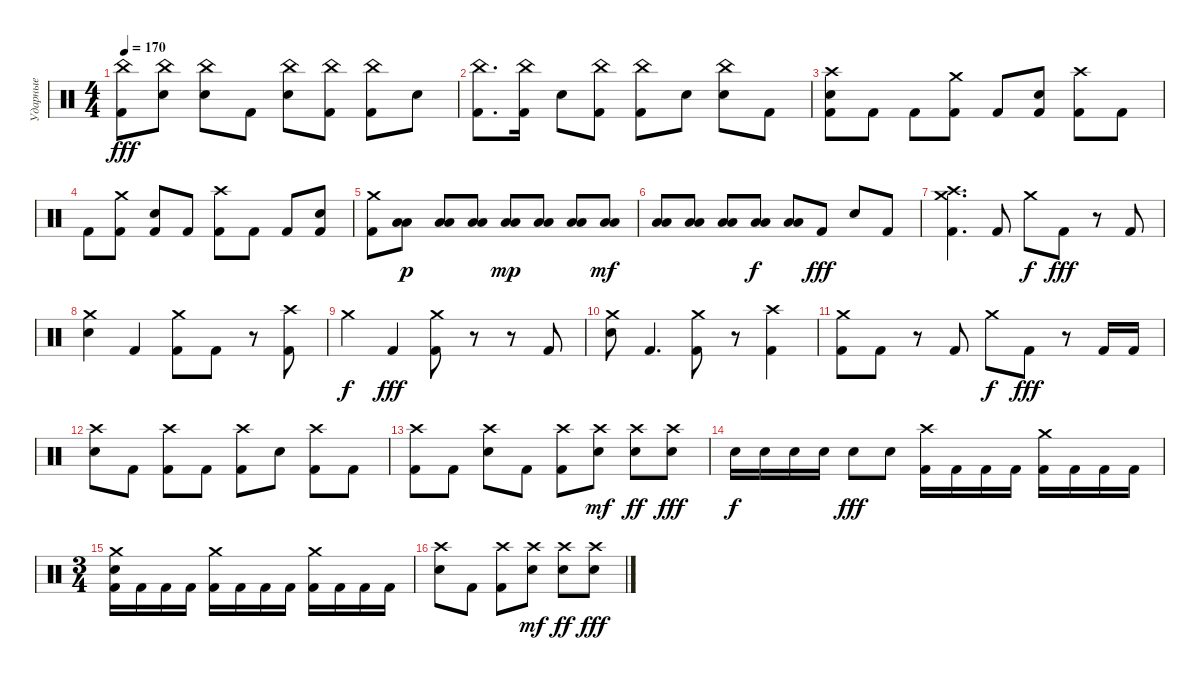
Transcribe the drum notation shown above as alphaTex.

\track ("Ударные" "Ударные") {instrument percussion}
\staff {score}
\articulation defaults
\ts (4 4)
\tempo 170
\clef neutral
\ks c
("China (hit)" "Kick (hit) 2").8{dy fff} ("China (hit)" "Electric Snare (hit)").8 ("China (hit)" "Electric Snare (hit)").8 "Kick (hit) 2".8 ("China (hit)" "Electric Snare (hit)").8 ("China (hit)" "Kick (hit) 2").8 ("China (hit)" "Kick (hit) 2").8 "Electric Snare (hit)".8 |
("China (hit)" "Kick (hit) 2").8{d} ("China (hit)" "Kick (hit) 2").16 "Electric Snare (hit)".8 ("China (hit)" "Kick (hit) 2").8 ("China (hit)" "Kick (hit) 2").8 "Electric Snare (hit)".8 ("China (hit)" "Electric Snare (hit)").8 "Kick (hit) 2".8 |
("Crash high (hit)" "Electric Snare (hit)" "Kick (hit) 2").8 "Kick (hit) 2".8 "Kick (hit) 2".8 ("Crash medium (hit)" "Kick (hit) 2").8 "Kick (hit) 2".8 ("Electric Snare (hit)" "Kick (hit) 2").8 ("Crash high (hit)" "Kick (hit) 2").8 "Kick (hit) 2".8 |
"Kick (hit) 2".8 ("Crash medium (hit)" "Kick (hit) 2").8 ("Electric Snare (hit)" "Kick (hit) 2").8 "Kick (hit) 2".8 ("Crash high (hit)" "Kick (hit) 2").8 "Kick (hit) 2".8 "Kick (hit) 2".8 ("Electric Snare (hit)" "Kick (hit) 2").8 |
("Crash medium (hit)" "Kick (hit) 2").8 ("Low Tom (hit)" "Low Floor Tom (hit)").8{dy p} ("Low Tom (hit)" "Low Floor Tom (hit)").8 ("Low Tom (hit)" "Low Floor Tom (hit)").8 ("Low Tom (hit)" "Low Floor Tom (hit)").8{dy mp} ("Low Tom (hit)" "Low Floor Tom (hit)").8 ("Low Tom (hit)" "Low Floor Tom (hit)").8 ("Low Tom (hit)" "Low Floor Tom (hit)").8{dy mf} |
("Low Tom (hit)" "Low Floor Tom (hit)").8 ("Low Tom (hit)" "Low Floor Tom (hit)").8 ("Low Tom (hit)" "Low Floor Tom (hit)").8 ("Low Tom (hit)" "Low Floor Tom (hit)").8{dy f} ("Low Tom (hit)" "Low Floor Tom (hit)").8 "Kick (hit) 2".8{dy fff} "Electric Snare (hit)".8 "Kick (hit) 2".8 |
("Crash medium (hit)" "Crash high (hit)" "Kick (hit) 2").4{d} "Kick (hit) 2".8 "Crash medium (hit)".8{dy f} "Kick (hit) 2".8{dy fff} r.8 "Kick (hit) 2".8 |
("Crash medium (hit)" "Electric Snare (hit)").4 "Kick (hit) 2".4 ("Crash medium (hit)" "Kick (hit) 2").8 "Kick (hit) 2".8 r.8 ("Crash high (hit)" "Kick (hit) 2").8 |
"Crash medium (hit)".4{dy f} "Kick (hit) 2".4{dy fff} ("Crash medium (hit)" "Kick (hit) 2").8 r.8 r.8 "Kick (hit) 2".8 |
("Crash medium (hit)" "Electric Snare (hit)").8 "Kick (hit) 2".4{d} ("Crash medium (hit)" "Kick (hit) 2").8 r.8 ("Crash high (hit)" "Kick (hit) 2").4 |
("Crash medium (hit)" "Kick (hit) 2").8 "Kick (hit) 2".8 r.8 "Kick (hit) 2".8 "Crash medium (hit)".8{dy f} "Kick (hit) 2".8{dy fff} r.8 "Kick (hit) 2".16 "Kick (hit) 2".16 |
("Crash high (hit)" "Electric Snare (hit)").8 "Kick (hit) 2".8 ("Crash high (hit)" "Kick (hit) 2").8 "Kick (hit) 2".8 ("Crash high (hit)" "Kick (hit) 2").8 "Electric Snare (hit)".8 ("Crash high (hit)" "Kick (hit) 2").8 "Kick (hit) 2".8 |
("Crash high (hit)" "Kick (hit) 2").8 "Kick (hit) 2".8 ("Crash high (hit)" "Electric Snare (hit)").8 "Kick (hit) 2".8 ("Crash high (hit)" "Kick (hit) 2").8 ("Crash high (hit)" "Electric Snare (hit)").8{dy mf} ("Crash high (hit)" "Electric Snare (hit)").8{dy ff} ("Crash high (hit)" "Electric Snare (hit)").8{dy fff} |
"Electric Snare (hit)".16{dy f} "Electric Snare (hit)".16 "Electric Snare (hit)".16 "Electric Snare (hit)".16 "Electric Snare (hit)".8{dy fff} "Electric Snare (hit)".8 ("Crash high (hit)" "Kick (hit) 2").16 "Kick (hit) 2".16 "Kick (hit) 2".16 "Kick (hit) 2".16 ("Crash medium (hit)" "Kick (hit) 2").16 "Kick (hit) 2".16 "Kick (hit) 2".16 "Kick (hit) 2".16 |
\ts (3 4)
("Crash medium (hit)" "Electric Snare (hit)" "Kick (hit) 2").16 "Kick (hit) 2".16 "Kick (hit) 2".16 "Kick (hit) 2".16 ("Crash medium (hit)" "Kick (hit) 2").16 "Kick (hit) 2".16 "Kick (hit) 2".16 "Kick (hit) 2".16 ("Crash medium (hit)" "Kick (hit) 2").16 "Kick (hit) 2".16 "Kick (hit) 2".16 "Kick (hit) 2".16 |
("Crash high (hit)" "Electric Snare (hit)").8 "Kick (hit) 2".8 ("Crash high (hit)" "Kick (hit) 2").8 ("Crash high (hit)" "Electric Snare (hit)").8{dy mf} ("Crash high (hit)" "Electric Snare (hit)").8{dy ff} ("Crash high (hit)" "Electric Snare (hit)").8{dy fff}
